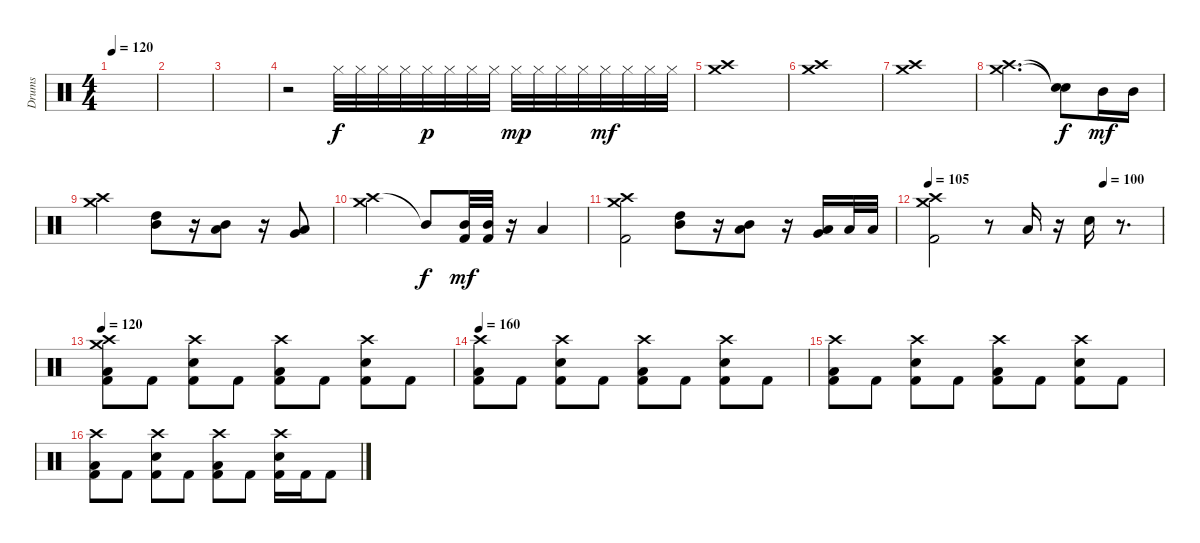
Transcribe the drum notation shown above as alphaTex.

\track ("Drums" "Drums") {instrument percussion}
\staff {score}
\articulation defaults
\ts (4 4)
\tempo 120
\clef neutral
\ks c
|
|
|
r.2 "Hi-Hat (closed)".32 "Hi-Hat (closed)".32 "Hi-Hat (closed)".32 "Hi-Hat (closed)".32 "Hi-Hat (closed)".32{dy p} "Hi-Hat (closed)".32 "Hi-Hat (closed)".32 "Hi-Hat (closed)".32 "Hi-Hat (closed)".32{dy mp} "Hi-Hat (closed)".32 "Hi-Hat (closed)".32 "Hi-Hat (closed)".32 "Hi-Hat (closed)".32{dy mf} "Hi-Hat (closed)".32 "Hi-Hat (closed)".32 "Hi-Hat (closed)".32 |
("Crash high (hit)" "Crash medium (hit)").1 |
("Crash high (hit)" "Crash medium (hit)").1 |
("Crash high (hit)" "Crash medium (hit)").1 |
("Crash high (hit)" "Crash medium (hit)").2{d} ("Snare (hit)"{t} "Snare (hit)"{t}).8{dy f} "Mid Tom (hit)".16{dy mf} "Mid Tom (hit)".16 |
("Crash high (hit)" "Crash medium (hit)").2 ("Mid Tom (hit)" "High Tom (hit)").8 r.16 ("Mid Tom (hit)" "Low Tom (hit)").8 r.16 ("Low Tom (hit)" "Very Low Tom (hit)").8 |
("Crash high (hit)" "Crash medium (hit)").2 "Mid Tom (hit)"{t}.8{dy f} ("Mid Tom (hit)" "Kick (hit) 2").32{dy mf} ("Mid Tom (hit)" "Kick (hit) 2").32 r.16 "Low Tom (hit)".4 |
("Crash high (hit)" "Crash medium (hit)" "Kick (hit) 2").2 ("Mid Tom (hit)" "High Tom (hit)").8 r.16 ("Mid Tom (hit)" "Low Tom (hit)").8 r.16 ("Low Tom (hit)" "Very Low Tom (hit)").16 "Low Tom (hit)".32 "Low Tom (hit)".32 |
\tempo 105
\tempo (100 0.75)
("Crash high (hit)" "Crash medium (hit)" "Kick (hit) 2").2 r.8 "Low Tom (hit)".16 r.16 "Electric Snare (hit)".16 r.8{d} |
\tempo 120
("Crash high (hit)" "Low Tom (hit)" "Crash medium (hit)" "Kick (hit) 2").8 "Kick (hit) 2".8 ("Crash high (hit)" "Electric Snare (hit)" "Kick (hit) 2").8 "Kick (hit) 2".8 ("Crash high (hit)" "Low Tom (hit)" "Kick (hit) 2").8 "Kick (hit) 2".8 ("Crash high (hit)" "Electric Snare (hit)" "Kick (hit) 2").8 "Kick (hit) 2".8 |
\tempo 160
("Crash high (hit)" "Low Tom (hit)" "Kick (hit) 2").8 "Kick (hit) 2".8 ("Crash high (hit)" "Electric Snare (hit)" "Kick (hit) 2").8 "Kick (hit) 2".8 ("Crash high (hit)" "Low Tom (hit)" "Kick (hit) 2").8 "Kick (hit) 2".8 ("Crash high (hit)" "Electric Snare (hit)" "Kick (hit) 2").8 "Kick (hit) 2".8 |
("Crash high (hit)" "Low Tom (hit)" "Kick (hit) 2").8 "Kick (hit) 2".8 ("Crash high (hit)" "Electric Snare (hit)" "Kick (hit) 2").8 "Kick (hit) 2".8 ("Crash high (hit)" "Low Tom (hit)" "Kick (hit) 2").8 "Kick (hit) 2".8 ("Crash high (hit)" "Electric Snare (hit)" "Kick (hit) 2").8 "Kick (hit) 2".8 |
("Crash high (hit)" "Low Tom (hit)" "Kick (hit) 2").8 "Kick (hit) 2".8 ("Crash high (hit)" "Electric Snare (hit)" "Kick (hit) 2").8 "Kick (hit) 2".8 ("Crash high (hit)" "Low Tom (hit)" "Kick (hit) 2").8 "Kick (hit) 2".8 ("Crash high (hit)" "Electric Snare (hit)" "Kick (hit) 2").16 "Kick (hit) 2".16 "Kick (hit) 2".8
